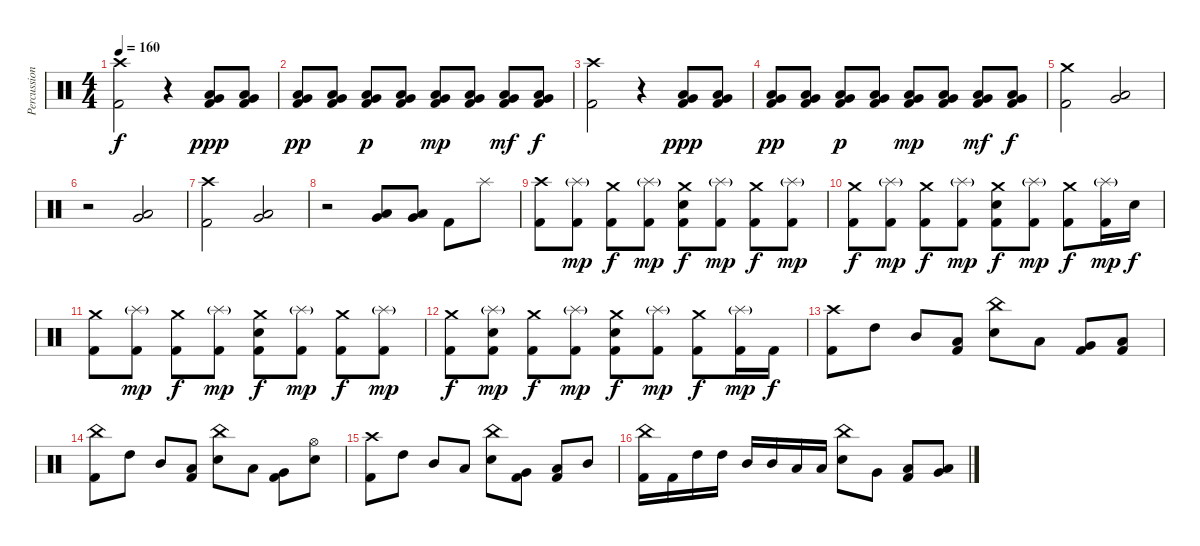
\track ("Percussion" "Percussion") {instrument percussion}
\staff {score}
\articulation defaults
\ts (4 4)
\tempo 160
\clef neutral
\ks c
("Crash high (hit)" "Kick (hit) 2").2{dy f} r.4 ("Very Low Tom (hit)" "Low Floor Tom (hit)" "Kick (hit) 2").8{dy ppp} ("Very Low Tom (hit)" "Low Floor Tom (hit)" "Kick (hit) 2").8 |
("Very Low Tom (hit)" "Low Floor Tom (hit)" "Kick (hit) 2").8{dy pp} ("Very Low Tom (hit)" "Low Floor Tom (hit)" "Kick (hit) 2").8 ("Very Low Tom (hit)" "Low Floor Tom (hit)" "Kick (hit) 2").8{dy p} ("Very Low Tom (hit)" "Low Floor Tom (hit)" "Kick (hit) 2").8 ("Very Low Tom (hit)" "Low Floor Tom (hit)" "Kick (hit) 2").8{dy mp} ("Very Low Tom (hit)" "Low Floor Tom (hit)" "Kick (hit) 2").8 ("Very Low Tom (hit)" "Low Floor Tom (hit)" "Kick (hit) 2").8{dy mf} ("Very Low Tom (hit)" "Low Floor Tom (hit)" "Kick (hit) 2").8{dy f} |
("Crash high (hit)" "Kick (hit) 2").2 r.4 ("Very Low Tom (hit)" "Low Floor Tom (hit)" "Kick (hit) 2").8{dy ppp} ("Very Low Tom (hit)" "Low Floor Tom (hit)" "Kick (hit) 2").8 |
("Very Low Tom (hit)" "Low Floor Tom (hit)" "Kick (hit) 2").8{dy pp} ("Very Low Tom (hit)" "Low Floor Tom (hit)" "Kick (hit) 2").8 ("Very Low Tom (hit)" "Low Floor Tom (hit)" "Kick (hit) 2").8{dy p} ("Very Low Tom (hit)" "Low Floor Tom (hit)" "Kick (hit) 2").8 ("Very Low Tom (hit)" "Low Floor Tom (hit)" "Kick (hit) 2").8{dy mp} ("Very Low Tom (hit)" "Low Floor Tom (hit)" "Kick (hit) 2").8 ("Very Low Tom (hit)" "Low Floor Tom (hit)" "Kick (hit) 2").8{dy mf} ("Very Low Tom (hit)" "Low Floor Tom (hit)" "Kick (hit) 2").8{dy f} |
("Crash medium (hit)" "Kick (hit) 2").2 ("Low Floor Tom (hit)" "Very Low Tom (hit)").2 |
r.2 ("Low Floor Tom (hit)" "Very Low Tom (hit)").2 |
("Crash high (hit)" "Kick (hit) 2").2 ("Very Low Tom (hit)" "Low Floor Tom (hit)").2 |
r.2 ("Very Low Tom (hit)" "Low Floor Tom (hit)").8 ("Low Floor Tom (hit)" "Very Low Tom (hit)").8 "Kick (hit) 2".8 "Splash (hit)".8 |
("Crash high (hit)" "Kick (hit) 2").8 ("Splash (hit)"{g} "Kick (hit) 2").8{dy mp} ("Crash medium (hit)" "Kick (hit) 2").8{dy f} ("Splash (hit)"{g} "Kick (hit) 2").8{dy mp} ("Crash medium (hit)" "Electric Snare (hit)" "Kick (hit) 2").8{dy f} ("Splash (hit)"{g} "Kick (hit) 2").8{dy mp} ("Crash medium (hit)" "Kick (hit) 2").8{dy f} ("Splash (hit)"{g} "Kick (hit) 2").8{dy mp} |
("Crash medium (hit)" "Kick (hit) 2").8{dy f} ("Splash (hit)"{g} "Kick (hit) 2").8{dy mp} ("Crash medium (hit)" "Kick (hit) 2").8{dy f} ("Splash (hit)"{g} "Kick (hit) 2").8{dy mp} ("Crash medium (hit)" "Electric Snare (hit)" "Kick (hit) 2").8{dy f} ("Splash (hit)"{g} "Kick (hit) 2").8{dy mp} ("Crash medium (hit)" "Kick (hit) 2").8{dy f} ("Splash (hit)"{g} "Kick (hit) 2").16{dy mp} "Electric Snare (hit)".16{dy f} |
("Crash medium (hit)" "Kick (hit) 2").8 ("Splash (hit)"{g} "Kick (hit) 2").8{dy mp} ("Crash medium (hit)" "Kick (hit) 2").8{dy f} ("Splash (hit)"{g} "Kick (hit) 2").8{dy mp} ("Crash medium (hit)" "Electric Snare (hit)" "Kick (hit) 2").8{dy f} ("Splash (hit)"{g} "Kick (hit) 2").8{dy mp} ("Crash medium (hit)" "Kick (hit) 2").8{dy f} ("Splash (hit)"{g} "Kick (hit) 2").8{dy mp} |
("Crash medium (hit)" "Kick (hit) 2").8{dy f} ("Splash (hit)"{g} "Electric Snare (hit)" "Kick (hit) 2").8{dy mp} ("Crash medium (hit)" "Kick (hit) 2").8{dy f} ("Splash (hit)"{g} "Kick (hit) 2").8{dy mp} ("Crash medium (hit)" "Electric Snare (hit)" "Kick (hit) 2").8{dy f} ("Splash (hit)"{g} "Kick (hit) 2").8{dy mp} ("Crash medium (hit)" "Kick (hit) 2").8{dy f} ("Splash (hit)"{g} "Kick (hit) 2").16{dy mp} "Kick (hit) 2".16{dy f} |
("Crash high (hit)" "Kick (hit) 2").8 "High Tom (hit)".8 "Mid Tom (hit)".8 ("Low Tom (hit)" "Kick (hit) 2").8 ("China (hit)" "Electric Snare (hit)").8 "Low Tom (hit)".8 ("Very Low Tom (hit)" "Kick (hit) 2").8 ("Low Floor Tom (hit)" "Kick (hit) 2").8 |
("China (hit)" "Kick (hit) 2").8 "High Tom (hit)".8 "Mid Tom (hit)".8 ("Low Tom (hit)" "Kick (hit) 2").8 ("China (hit)" "Electric Snare (hit)").8 "Low Tom (hit)".8 ("Very Low Tom (hit)" "Kick (hit) 2").8 ("Hi-Hat (open)" "Electric Snare (hit)").8 |
("Crash high (hit)" "Kick (hit) 2").8 "High Tom (hit)".8 "Mid Tom (hit)".8 "Low Tom (hit)".8 ("China (hit)" "Electric Snare (hit)").8 ("Very Low Tom (hit)" "Kick (hit) 2").8 ("Low Tom (hit)" "Kick (hit) 2").8 "Mid Tom (hit)".8 |
("China (hit)" "Kick (hit) 2").16 "Kick (hit) 2".16 "High Tom (hit)".16 "High Tom (hit)".16 "Mid Tom (hit)".16 "Mid Tom (hit)".16 "Low Tom (hit)".16 "Low Tom (hit)".16 ("China (hit)" "Electric Snare (hit)").8 "Very Low Tom (hit)".8 ("Low Floor Tom (hit)" "Kick (hit) 2").8 ("Very Low Tom (hit)" "Low Floor Tom (hit)").8
